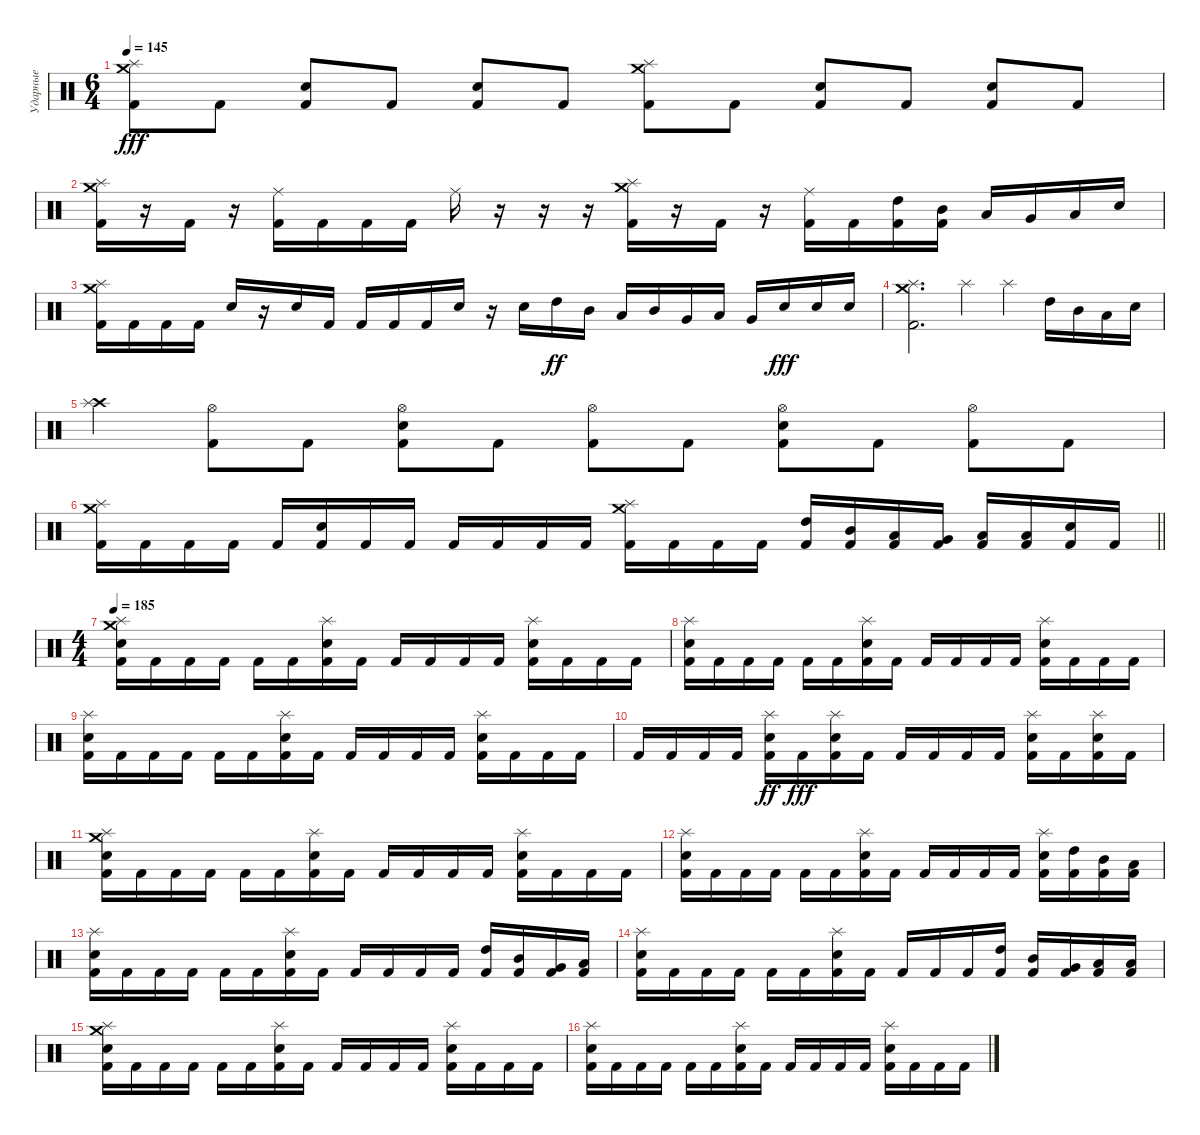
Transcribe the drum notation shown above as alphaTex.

\track ("Ударные" "Ударные") {instrument percussion}
\staff {score}
\articulation defaults
\ts (6 4)
\tempo 145
\clef neutral
\ks c
("Crash medium (hit)" "Splash (hit)" "Kick (hit) 2").8{dy fff} "Kick (hit) 2".8 ("Electric Snare (hit)" "Kick (hit) 2").8 "Kick (hit) 2".8 ("Electric Snare (hit)" "Kick (hit) 2").8 "Kick (hit) 2".8 ("Crash medium (hit)" "Splash (hit)" "Kick (hit) 2").8 "Kick (hit) 2".8 ("Electric Snare (hit)" "Kick (hit) 2").8 "Kick (hit) 2".8 ("Electric Snare (hit)" "Kick (hit) 2").8 "Kick (hit) 2".8 |
("Crash medium (hit)" "Splash (hit)" "Kick (hit) 2").16 r.16 "Kick (hit) 2".16 r.16 ("Ride (middle)" "Kick (hit) 2").16 "Kick (hit) 2".16 "Kick (hit) 2".16 "Kick (hit) 2".16 "Ride (middle)".16 r.16 r.16 r.16 ("Crash medium (hit)" "Splash (hit)" "Kick (hit) 2").16 r.16 "Kick (hit) 2".16 r.16 ("Ride (middle)" "Kick (hit) 2").16 "Kick (hit) 2".16 ("High Tom (hit)" "Kick (hit) 2").16 ("Mid Tom (hit)" "Kick (hit) 2").16 "Low Tom (hit)".16 "Very Low Tom (hit)".16 "Low Floor Tom (hit)".16 "Electric Snare (hit)".16 |
("Crash medium (hit)" "Splash (hit)" "Kick (hit) 2").16 "Kick (hit) 2".16 "Kick (hit) 2".16 "Kick (hit) 2".16 "Electric Snare (hit)".16 r.16 "Electric Snare (hit)".16 "Kick (hit) 2".16 "Kick (hit) 2".16 "Kick (hit) 2".16 "Kick (hit) 2".16 "Electric Snare (hit)".16 r.16 "Electric Snare (hit)".16 "High Tom (hit)".16{dy ff} "Mid Tom (hit)".16 "Low Tom (hit)".16 "Mid Tom (hit)".16 "Very Low Tom (hit)".16 "Low Floor Tom (hit)".16 "Very Low Tom (hit)".16 "Electric Snare (hit)".16{dy fff} "Electric Snare (hit)".16 "Electric Snare (hit)".16 |
("Crash medium (hit)" "Splash (hit)" "Kick (hit) 2").2{d} "Splash (hit)".4 "Splash (hit)".4 "High Tom (hit)".16 "Mid Tom (hit)".16 "Low Tom (hit)".16 "Electric Snare (hit)".16 |
("Crash high (hit)" "Splash (hit)").4 ("Hi-Hat (open)" "Kick (hit) 2").8 "Kick (hit) 2".8 ("Hi-Hat (open)" "Electric Snare (hit)" "Kick (hit) 2").8 "Kick (hit) 2".8 ("Hi-Hat (open)" "Kick (hit) 2").8 "Kick (hit) 2".8 ("Hi-Hat (open)" "Electric Snare (hit)" "Kick (hit) 2").8 "Kick (hit) 2".8 ("Hi-Hat (open)" "Kick (hit) 2").8 "Kick (hit) 2".8 |
\barLineRight lightlight
("Crash medium (hit)" "Splash (hit)" "Kick (hit) 2").16 "Kick (hit) 2".16 "Kick (hit) 2".16 "Kick (hit) 2".16 "Kick (hit) 2".16 ("Electric Snare (hit)" "Kick (hit) 2").16 "Kick (hit) 2".16 "Kick (hit) 2".16 "Kick (hit) 2".16 "Kick (hit) 2".16 "Kick (hit) 2".16 "Kick (hit) 2".16 ("Crash medium (hit)" "Splash (hit)" "Kick (hit) 2").16 "Kick (hit) 2".16 "Kick (hit) 2".16 "Kick (hit) 2".16 ("High Tom (hit)" "Kick (hit) 2").16 ("Mid Tom (hit)" "Kick (hit) 2").16 ("Low Tom (hit)" "Kick (hit) 2").16 ("Very Low Tom (hit)" "Kick (hit) 2").16 ("Low Floor Tom (hit)" "Kick (hit) 2").16 ("Low Tom (hit)" "Kick (hit) 2").16 ("Electric Snare (hit)" "Kick (hit) 2").16 "Kick (hit) 2".16 |
\ts (4 4)
\tempo 185
("Crash medium (hit)" "Splash (hit)" "Electric Snare (hit)" "Kick (hit) 2").16 "Kick (hit) 2".16 "Kick (hit) 2".16 "Kick (hit) 2".16 "Kick (hit) 2".16 "Kick (hit) 2".16 ("Splash (hit)" "Electric Snare (hit)" "Kick (hit) 2").16 "Kick (hit) 2".16 "Kick (hit) 2".16 "Kick (hit) 2".16 "Kick (hit) 2".16 "Kick (hit) 2".16 ("Splash (hit)" "Electric Snare (hit)" "Kick (hit) 2").16 "Kick (hit) 2".16 "Kick (hit) 2".16 "Kick (hit) 2".16 |
("Splash (hit)" "Electric Snare (hit)" "Kick (hit) 2").16 "Kick (hit) 2".16 "Kick (hit) 2".16 "Kick (hit) 2".16 "Kick (hit) 2".16 "Kick (hit) 2".16 ("Splash (hit)" "Electric Snare (hit)" "Kick (hit) 2").16 "Kick (hit) 2".16 "Kick (hit) 2".16 "Kick (hit) 2".16 "Kick (hit) 2".16 "Kick (hit) 2".16 ("Splash (hit)" "Electric Snare (hit)" "Kick (hit) 2").16 "Kick (hit) 2".16 "Kick (hit) 2".16 "Kick (hit) 2".16 |
("Splash (hit)" "Electric Snare (hit)" "Kick (hit) 2").16 "Kick (hit) 2".16 "Kick (hit) 2".16 "Kick (hit) 2".16 "Kick (hit) 2".16 "Kick (hit) 2".16 ("Splash (hit)" "Electric Snare (hit)" "Kick (hit) 2").16 "Kick (hit) 2".16 "Kick (hit) 2".16 "Kick (hit) 2".16 "Kick (hit) 2".16 "Kick (hit) 2".16 ("Splash (hit)" "Electric Snare (hit)" "Kick (hit) 2").16 "Kick (hit) 2".16 "Kick (hit) 2".16 "Kick (hit) 2".16 |
"Kick (hit) 2".16 "Kick (hit) 2".16 "Kick (hit) 2".16 "Kick (hit) 2".16 ("Splash (hit)" "Electric Snare (hit)" "Kick (hit) 2").16{dy ff} "Kick (hit) 2".16{dy fff} ("Splash (hit)" "Electric Snare (hit)" "Kick (hit) 2").16 "Kick (hit) 2".16 "Kick (hit) 2".16 "Kick (hit) 2".16 "Kick (hit) 2".16 "Kick (hit) 2".16 ("Splash (hit)" "Electric Snare (hit)" "Kick (hit) 2").16 "Kick (hit) 2".16 ("Splash (hit)" "Electric Snare (hit)" "Kick (hit) 2").16 "Kick (hit) 2".16 |
("Crash medium (hit)" "Splash (hit)" "Electric Snare (hit)" "Kick (hit) 2").16 "Kick (hit) 2".16 "Kick (hit) 2".16 "Kick (hit) 2".16 "Kick (hit) 2".16 "Kick (hit) 2".16 ("Splash (hit)" "Electric Snare (hit)" "Kick (hit) 2").16 "Kick (hit) 2".16 "Kick (hit) 2".16 "Kick (hit) 2".16 "Kick (hit) 2".16 "Kick (hit) 2".16 ("Splash (hit)" "Electric Snare (hit)" "Kick (hit) 2").16 "Kick (hit) 2".16 "Kick (hit) 2".16 "Kick (hit) 2".16 |
("Splash (hit)" "Electric Snare (hit)" "Kick (hit) 2").16 "Kick (hit) 2".16 "Kick (hit) 2".16 "Kick (hit) 2".16 "Kick (hit) 2".16 "Kick (hit) 2".16 ("Splash (hit)" "Electric Snare (hit)" "Kick (hit) 2").16 "Kick (hit) 2".16 "Kick (hit) 2".16 "Kick (hit) 2".16 "Kick (hit) 2".16 "Kick (hit) 2".16 ("Splash (hit)" "Electric Snare (hit)" "Kick (hit) 2").16 ("High Tom (hit)" "Kick (hit) 2").16 ("Mid Tom (hit)" "Kick (hit) 2").16 ("Low Tom (hit)" "Kick (hit) 2").16 |
("Splash (hit)" "Electric Snare (hit)" "Kick (hit) 2").16 "Kick (hit) 2".16 "Kick (hit) 2".16 "Kick (hit) 2".16 "Kick (hit) 2".16 "Kick (hit) 2".16 ("Splash (hit)" "Electric Snare (hit)" "Kick (hit) 2").16 "Kick (hit) 2".16 "Kick (hit) 2".16 "Kick (hit) 2".16 "Kick (hit) 2".16 "Kick (hit) 2".16 ("High Tom (hit)" "Kick (hit) 2").16 ("Mid Tom (hit)" "Kick (hit) 2").16 ("Very Low Tom (hit)" "Kick (hit) 2").16 ("Low Tom (hit)" "Kick (hit) 2").16 |
("Splash (hit)" "Electric Snare (hit)" "Kick (hit) 2").16 "Kick (hit) 2".16 "Kick (hit) 2".16 "Kick (hit) 2".16 "Kick (hit) 2".16 "Kick (hit) 2".16 ("Splash (hit)" "Electric Snare (hit)" "Kick (hit) 2").16 "Kick (hit) 2".16 "Kick (hit) 2".16 "Kick (hit) 2".16 "Kick (hit) 2".16 ("High Tom (hit)" "Kick (hit) 2").16 ("Mid Tom (hit)" "Kick (hit) 2").16 ("Very Low Tom (hit)" "Kick (hit) 2").16 ("Low Tom (hit)" "Kick (hit) 2").16 ("Low Floor Tom (hit)" "Kick (hit) 2").16 |
("Crash medium (hit)" "Splash (hit)" "Electric Snare (hit)" "Kick (hit) 2").16 "Kick (hit) 2".16 "Kick (hit) 2".16 "Kick (hit) 2".16 "Kick (hit) 2".16 "Kick (hit) 2".16 ("Splash (hit)" "Electric Snare (hit)" "Kick (hit) 2").16 "Kick (hit) 2".16 "Kick (hit) 2".16 "Kick (hit) 2".16 "Kick (hit) 2".16 "Kick (hit) 2".16 ("Splash (hit)" "Electric Snare (hit)" "Kick (hit) 2").16 "Kick (hit) 2".16 "Kick (hit) 2".16 "Kick (hit) 2".16 |
("Splash (hit)" "Electric Snare (hit)" "Kick (hit) 2").16 "Kick (hit) 2".16 "Kick (hit) 2".16 "Kick (hit) 2".16 "Kick (hit) 2".16 "Kick (hit) 2".16 ("Splash (hit)" "Electric Snare (hit)" "Kick (hit) 2").16 "Kick (hit) 2".16 "Kick (hit) 2".16 "Kick (hit) 2".16 "Kick (hit) 2".16 "Kick (hit) 2".16 ("Splash (hit)" "Electric Snare (hit)" "Kick (hit) 2").16 "Kick (hit) 2".16 "Kick (hit) 2".16 "Kick (hit) 2".16
